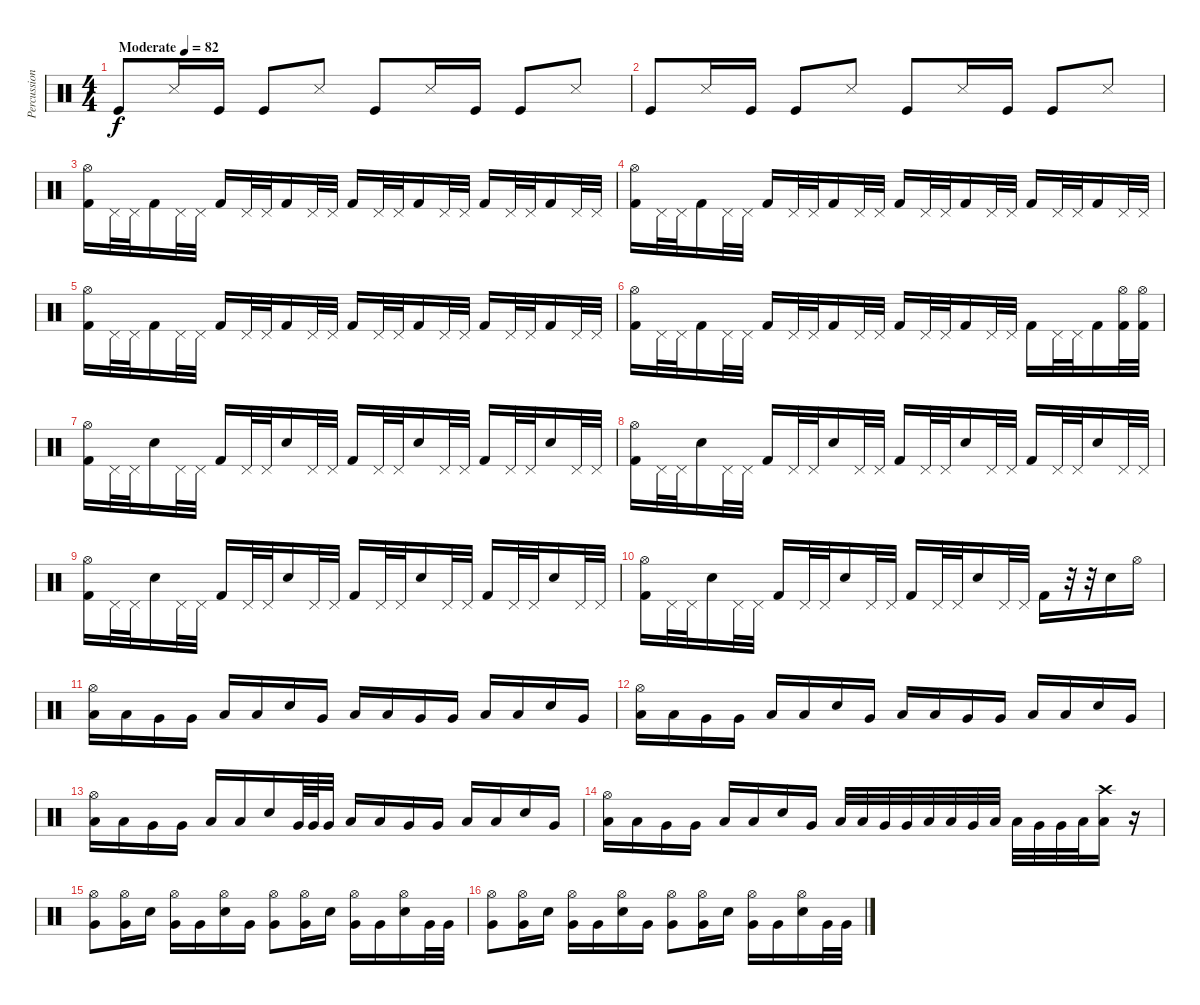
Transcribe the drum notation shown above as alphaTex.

\track ("Percussion" "Percussion") {instrument percussion}
\staff {score}
\articulation defaults
\ts (4 4)
\tempo (82 "Moderate")
\clef neutral
\ks c "Kick (hit)".8{dy f} "Snare (side stick) 3".16 "Kick (hit)".16 "Kick (hit)".8 "Snare (side stick) 3".8 "Kick (hit)".8 "Snare (side stick) 3".16 "Kick (hit)".16 "Kick (hit)".8 "Snare (side stick) 3".8
|
"Kick (hit)".8 "Snare (side stick) 3".16 "Kick (hit)".16 "Kick (hit)".8 "Snare (side stick) 3".8 "Kick (hit)".8 "Snare (side stick) 3".16 "Kick (hit)".16 "Kick (hit)".8 "Snare (side stick) 3".8 |
("Hi-Hat (open)" "Kick (hit) 2").16{volume 16} "Pedal Hi-Hat (hit)".32 "Pedal Hi-Hat (hit)".32 "Kick (hit) 2".16 "Pedal Hi-Hat (hit)".32 "Pedal Hi-Hat (hit)".32 "Kick (hit) 2".16 "Pedal Hi-Hat (hit)".32 "Pedal Hi-Hat (hit)".32 "Kick (hit) 2".16 "Pedal Hi-Hat (hit)".32 "Pedal Hi-Hat (hit)".32 "Kick (hit) 2".16 "Pedal Hi-Hat (hit)".32 "Pedal Hi-Hat (hit)".32 "Kick (hit) 2".16 "Pedal Hi-Hat (hit)".32 "Pedal Hi-Hat (hit)".32 "Kick (hit) 2".16 "Pedal Hi-Hat (hit)".32 "Pedal Hi-Hat (hit)".32 "Kick (hit) 2".16 "Pedal Hi-Hat (hit)".32 "Pedal Hi-Hat (hit)".32 |
("Hi-Hat (open)" "Kick (hit) 2").16 "Pedal Hi-Hat (hit)".32 "Pedal Hi-Hat (hit)".32 "Kick (hit) 2".16 "Pedal Hi-Hat (hit)".32 "Pedal Hi-Hat (hit)".32 "Kick (hit) 2".16 "Pedal Hi-Hat (hit)".32 "Pedal Hi-Hat (hit)".32 "Kick (hit) 2".16 "Pedal Hi-Hat (hit)".32 "Pedal Hi-Hat (hit)".32 "Kick (hit) 2".16 "Pedal Hi-Hat (hit)".32 "Pedal Hi-Hat (hit)".32 "Kick (hit) 2".16 "Pedal Hi-Hat (hit)".32 "Pedal Hi-Hat (hit)".32 "Kick (hit) 2".16 "Pedal Hi-Hat (hit)".32 "Pedal Hi-Hat (hit)".32 "Kick (hit) 2".16 "Pedal Hi-Hat (hit)".32 "Pedal Hi-Hat (hit)".32 |
("Hi-Hat (open)" "Kick (hit) 2").16 "Pedal Hi-Hat (hit)".32 "Pedal Hi-Hat (hit)".32 "Kick (hit) 2".16 "Pedal Hi-Hat (hit)".32 "Pedal Hi-Hat (hit)".32 "Kick (hit) 2".16 "Pedal Hi-Hat (hit)".32 "Pedal Hi-Hat (hit)".32 "Kick (hit) 2".16 "Pedal Hi-Hat (hit)".32 "Pedal Hi-Hat (hit)".32 "Kick (hit) 2".16 "Pedal Hi-Hat (hit)".32 "Pedal Hi-Hat (hit)".32 "Kick (hit) 2".16 "Pedal Hi-Hat (hit)".32 "Pedal Hi-Hat (hit)".32 "Kick (hit) 2".16 "Pedal Hi-Hat (hit)".32 "Pedal Hi-Hat (hit)".32 "Kick (hit) 2".16 "Pedal Hi-Hat (hit)".32 "Pedal Hi-Hat (hit)".32 |
("Hi-Hat (open)" "Kick (hit) 2").16 "Pedal Hi-Hat (hit)".32 "Pedal Hi-Hat (hit)".32 "Kick (hit) 2".16 "Pedal Hi-Hat (hit)".32 "Pedal Hi-Hat (hit)".32 "Kick (hit) 2".16 "Pedal Hi-Hat (hit)".32 "Pedal Hi-Hat (hit)".32 "Kick (hit) 2".16 "Pedal Hi-Hat (hit)".32 "Pedal Hi-Hat (hit)".32 "Kick (hit) 2".16 "Pedal Hi-Hat (hit)".32 "Pedal Hi-Hat (hit)".32 "Kick (hit) 2".16 "Pedal Hi-Hat (hit)".32 "Pedal Hi-Hat (hit)".32 "Kick (hit) 2".16 "Pedal Hi-Hat (hit)".32 "Pedal Hi-Hat (hit)".32 "Kick (hit) 2".16 ("Hi-Hat (open)" "Kick (hit) 2").32 ("Hi-Hat (open)" "Kick (hit) 2").32 |
("Hi-Hat (open)" "Kick (hit) 2").16 "Pedal Hi-Hat (hit)".32 "Pedal Hi-Hat (hit)".32 "Snare (hit) 2".16 "Pedal Hi-Hat (hit)".32 "Pedal Hi-Hat (hit)".32 "Kick (hit) 2".16 "Pedal Hi-Hat (hit)".32 "Pedal Hi-Hat (hit)".32 "Snare (hit) 2".16 "Pedal Hi-Hat (hit)".32 "Pedal Hi-Hat (hit)".32 "Kick (hit) 2".16 "Pedal Hi-Hat (hit)".32 "Pedal Hi-Hat (hit)".32 "Snare (hit) 2".16 "Pedal Hi-Hat (hit)".32 "Pedal Hi-Hat (hit)".32 "Kick (hit) 2".16 "Pedal Hi-Hat (hit)".32 "Pedal Hi-Hat (hit)".32 "Snare (hit) 2".16 "Pedal Hi-Hat (hit)".32 "Pedal Hi-Hat (hit)".32 |
("Hi-Hat (open)" "Kick (hit) 2").16 "Pedal Hi-Hat (hit)".32 "Pedal Hi-Hat (hit)".32 "Snare (hit) 2".16 "Pedal Hi-Hat (hit)".32 "Pedal Hi-Hat (hit)".32 "Kick (hit) 2".16 "Pedal Hi-Hat (hit)".32 "Pedal Hi-Hat (hit)".32 "Snare (hit) 2".16 "Pedal Hi-Hat (hit)".32 "Pedal Hi-Hat (hit)".32 "Kick (hit) 2".16 "Pedal Hi-Hat (hit)".32 "Pedal Hi-Hat (hit)".32 "Snare (hit) 2".16 "Pedal Hi-Hat (hit)".32 "Pedal Hi-Hat (hit)".32 "Kick (hit) 2".16 "Pedal Hi-Hat (hit)".32 "Pedal Hi-Hat (hit)".32 "Snare (hit) 2".16 "Pedal Hi-Hat (hit)".32 "Pedal Hi-Hat (hit)".32 |
("Hi-Hat (open)" "Kick (hit) 2").16 "Pedal Hi-Hat (hit)".32 "Pedal Hi-Hat (hit)".32 "Snare (hit) 2".16 "Pedal Hi-Hat (hit)".32 "Pedal Hi-Hat (hit)".32 "Kick (hit) 2".16 "Pedal Hi-Hat (hit)".32 "Pedal Hi-Hat (hit)".32 "Snare (hit) 2".16 "Pedal Hi-Hat (hit)".32 "Pedal Hi-Hat (hit)".32 "Kick (hit) 2".16 "Pedal Hi-Hat (hit)".32 "Pedal Hi-Hat (hit)".32 "Snare (hit) 2".16 "Pedal Hi-Hat (hit)".32 "Pedal Hi-Hat (hit)".32 "Kick (hit) 2".16 "Pedal Hi-Hat (hit)".32 "Pedal Hi-Hat (hit)".32 "Snare (hit) 2".16 "Pedal Hi-Hat (hit)".32 "Pedal Hi-Hat (hit)".32 |
("Hi-Hat (open)" "Kick (hit) 2").16 "Pedal Hi-Hat (hit)".32 "Pedal Hi-Hat (hit)".32 "Snare (hit) 2".16 "Pedal Hi-Hat (hit)".32 "Pedal Hi-Hat (hit)".32 "Kick (hit) 2".16 "Pedal Hi-Hat (hit)".32 "Pedal Hi-Hat (hit)".32 "Snare (hit) 2".16 "Pedal Hi-Hat (hit)".32 "Pedal Hi-Hat (hit)".32 "Kick (hit) 2".16 "Pedal Hi-Hat (hit)".32 "Pedal Hi-Hat (hit)".32 "Snare (hit) 2".16 "Pedal Hi-Hat (hit)".32 "Pedal Hi-Hat (hit)".32 "Kick (hit) 2".16 r.32 r.32 "Snare (hit) 2".16 "Hi-Hat (open)".16 |
("Hi-Hat (open)" "Low Tom (hit)").16 "Low Tom (hit)".16 "Very Low Tom (hit)".16 "Very Low Tom (hit)".16 "Low Floor Tom (hit)".16 "Low Floor Tom (hit)".16 "Electric Snare (hit)".16 "Very Low Tom (hit)".16 "Low Tom (hit)".16 "Low Tom (hit)".16 "Very Low Tom (hit)".16 "Very Low Tom (hit)".16 "Low Floor Tom (hit)".16 "Low Floor Tom (hit)".16 "Electric Snare (hit)".16 "Very Low Tom (hit)".16 |
("Hi-Hat (open)" "Low Tom (hit)").16 "Low Tom (hit)".16 "Very Low Tom (hit)".16 "Very Low Tom (hit)".16 "Low Floor Tom (hit)".16 "Low Floor Tom (hit)".16 "Electric Snare (hit)".16 "Very Low Tom (hit)".16 "Low Tom (hit)".16 "Low Tom (hit)".16 "Very Low Tom (hit)".16 "Very Low Tom (hit)".16 "Low Floor Tom (hit)".16 "Low Floor Tom (hit)".16 "Electric Snare (hit)".16 "Very Low Tom (hit)".16 |
("Hi-Hat (open)" "Low Tom (hit)").16 "Low Tom (hit)".16 "Very Low Tom (hit)".16 "Very Low Tom (hit)".16 "Low Floor Tom (hit)".16 "Low Floor Tom (hit)".16 "Electric Snare (hit)".16 "Very Low Tom (hit)".64 "Very Low Tom (hit)".64 "Very Low Tom (hit)".32 "Low Tom (hit)".16 "Low Tom (hit)".16 "Very Low Tom (hit)".16 "Very Low Tom (hit)".16 "Low Floor Tom (hit)".16 "Low Floor Tom (hit)".16 "Electric Snare (hit)".16 "Very Low Tom (hit)".16 |
("Hi-Hat (open)" "Low Tom (hit)").16 "Low Tom (hit)".16 "Very Low Tom (hit)".16 "Very Low Tom (hit)".16 "Low Floor Tom (hit)".16 "Low Floor Tom (hit)".16 "Electric Snare (hit)".16 "Very Low Tom (hit)".16 "Low Tom (hit)".32 "Low Tom (hit)".32 "Very Low Tom (hit)".32 "Very Low Tom (hit)".32 "Low Floor Tom (hit)".32 "Low Floor Tom (hit)".32 "Very Low Tom (hit)".32 "Low Tom (hit)".32 "Low Tom (hit)".32 "Very Low Tom (hit)".32 "Very Low Tom (hit)".32 "Low Floor Tom (hit)".32 ("Crash high (hit)" "Low Floor Tom (hit)").16 r.16 |
("Hi-Hat (open)" "Very Low Tom (hit)").8 ("Hi-Hat (open)" "Very Low Tom (hit)").16 "Snare (hit) 2".16 ("Hi-Hat (open)" "Very Low Tom (hit)").16 "Very Low Tom (hit)".16 ("Hi-Hat (open)" "Snare (hit) 2").16 "Very Low Tom (hit)".16 ("Hi-Hat (open)" "Very Low Tom (hit)").8 ("Hi-Hat (open)" "Very Low Tom (hit)").16 "Snare (hit) 2".16 ("Hi-Hat (open)" "Very Low Tom (hit)").16 "Very Low Tom (hit)".16 ("Hi-Hat (open)" "Snare (hit) 2").16 "Very Low Tom (hit)".32 "Very Low Tom (hit)".32 |
("Hi-Hat (open)" "Very Low Tom (hit)").8 ("Hi-Hat (open)" "Very Low Tom (hit)").16 "Snare (hit) 2".16 ("Hi-Hat (open)" "Very Low Tom (hit)").16 "Very Low Tom (hit)".16 ("Hi-Hat (open)" "Snare (hit) 2").16 "Very Low Tom (hit)".16 ("Hi-Hat (open)" "Very Low Tom (hit)").8 ("Hi-Hat (open)" "Very Low Tom (hit)").16 "Snare (hit) 2".16 ("Hi-Hat (open)" "Very Low Tom (hit)").16 "Very Low Tom (hit)".16 ("Hi-Hat (open)" "Snare (hit) 2").16 "Very Low Tom (hit)".32 "Very Low Tom (hit)".32
